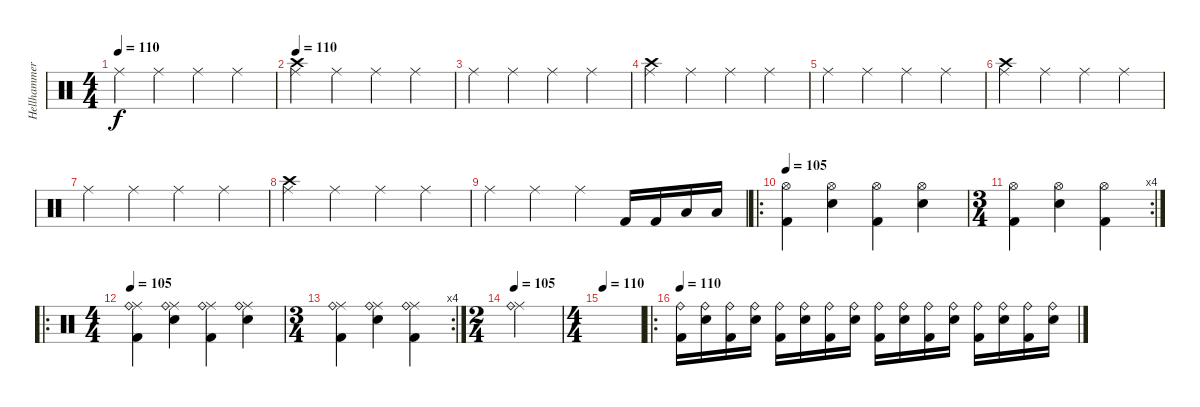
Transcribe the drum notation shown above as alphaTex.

\track ("Hellhammer" "Hellhammer") {instrument percussion}
\staff {score}
\articulation defaults
\ts (4 4)
\tempo 110
\clef neutral
\ks c "Ride (middle)".4{dy f} "Ride (middle)".4 "Ride (middle)".4 "Ride (middle)".4
|
\tempo 110
("Crash high (hit)" "Ride (middle)").4 "Ride (middle)".4 "Ride (middle)".4 "Ride (middle)".4 |
"Ride (middle)".4 "Ride (middle)".4 "Ride (middle)".4 "Ride (middle)".4 |
("Crash high (hit)" "Ride (middle)").4 "Ride (middle)".4 "Ride (middle)".4 "Ride (middle)".4 |
"Ride (middle)".4 "Ride (middle)".4 "Ride (middle)".4 "Ride (middle)".4 |
("Crash high (hit)" "Ride (middle)").4 "Ride (middle)".4 "Ride (middle)".4 "Ride (middle)".4 |
"Ride (middle)".4 "Ride (middle)".4 "Ride (middle)".4 "Ride (middle)".4 |
("Crash high (hit)" "Ride (middle)").4 "Ride (middle)".4 "Ride (middle)".4 "Ride (middle)".4 |
"Ride (middle)".4 "Ride (middle)".4 "Ride (middle)".4 "Kick (hit) 2".16 "Kick (hit) 2".16 "Low Tom (hit)".16 "Low Tom (hit)".16 |
\ro
\tempo 105
("Hi-Hat (open)" "Kick (hit) 2").4 ("Hi-Hat (open)" "Snare (hit) 2").4 ("Hi-Hat (open)" "Kick (hit) 2").4 ("Hi-Hat (open)" "Snare (hit) 2").4 |
\rc 4
\ts (3 4)
("Hi-Hat (open)" "Kick (hit) 2").4 ("Hi-Hat (open)" "Snare (hit) 2").4 ("Hi-Hat (open)" "Kick (hit) 2").4 |
\ro
\ts (4 4)
\tempo 105
("Ride (middle)" "Ride (bell)" "Kick (hit) 2").4 ("Ride (middle)" "Ride (bell)" "Snare (hit) 2").4 ("Ride (middle)" "Ride (bell)" "Kick (hit) 2").4 ("Ride (middle)" "Ride (bell)" "Snare (hit) 2").4 |
\rc 4
\ts (3 4)
("Ride (middle)" "Ride (bell)" "Kick (hit) 2").4 ("Ride (middle)" "Ride (bell)" "Snare (hit) 2").4 ("Ride (middle)" "Ride (bell)" "Kick (hit) 2").4 |
\ts (2 4)
\tempo 105
("Ride (middle)" "Ride (bell)").2 |
\ts (4 4)
\tempo 110
|
\ro
\tempo 110
("Ride (bell)" "Kick (hit) 2").16 ("Ride (bell)" "Snare (hit) 2").16 ("Ride (bell)" "Kick (hit) 2").16 ("Ride (bell)" "Snare (hit) 2").16 ("Ride (bell)" "Kick (hit) 2").16 ("Ride (bell)" "Snare (hit) 2").16 ("Ride (bell)" "Kick (hit) 2").16 ("Ride (bell)" "Snare (hit) 2").16 ("Ride (bell)" "Kick (hit) 2").16 ("Ride (bell)" "Snare (hit) 2").16 ("Ride (bell)" "Kick (hit) 2").16 ("Ride (bell)" "Snare (hit) 2").16 ("Ride (bell)" "Kick (hit) 2").16 ("Ride (bell)" "Snare (hit) 2").16 ("Ride (bell)" "Kick (hit) 2").16 ("Ride (bell)" "Snare (hit) 2").16
